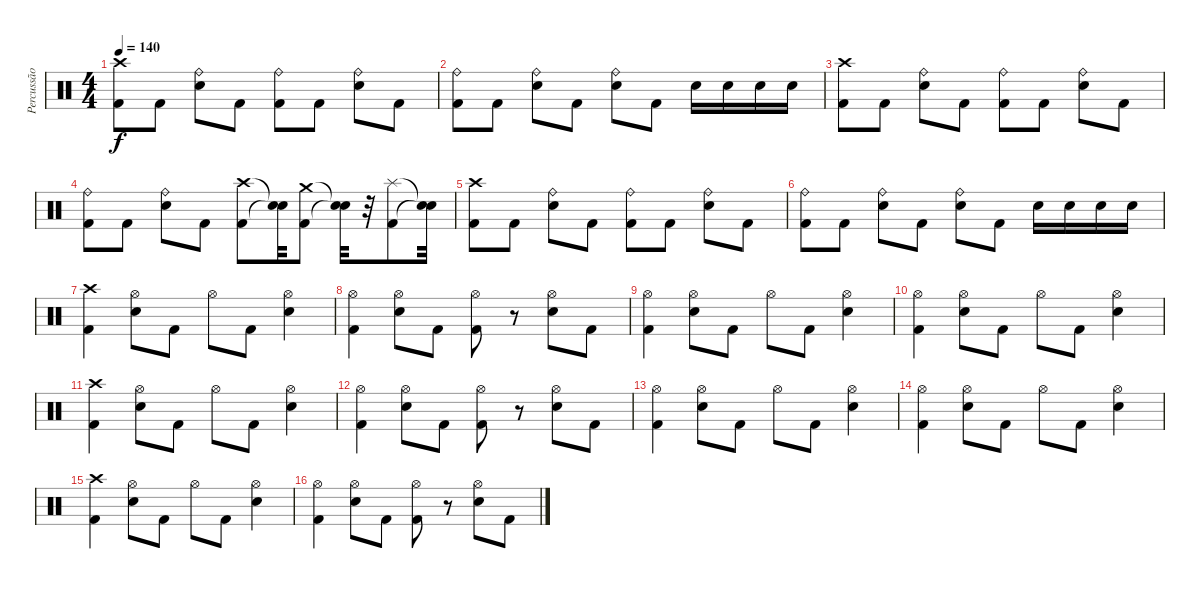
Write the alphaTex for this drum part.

\track ("Percussão" "Percussão") {instrument percussion}
\staff {score}
\articulation defaults
\ts (4 4)
\tempo 140
\clef neutral
\ks c
("Crash high (hit)" "Kick (hit) 2").8{dy f} "Kick (hit) 2".8 ("Ride (bell)" "Electric Snare (hit)").8 "Kick (hit) 2".8 ("Ride (bell)" "Kick (hit) 2").8 "Kick (hit) 2".8 ("Ride (bell)" "Electric Snare (hit)").8 "Kick (hit) 2".8 |
("Ride (bell)" "Kick (hit) 2").8 "Kick (hit) 2".8 ("Ride (bell)" "Electric Snare (hit)").8 "Kick (hit) 2".8 ("Ride (bell)" "Electric Snare (hit)").8 "Kick (hit) 2".8 "Electric Snare (hit)".16 "Electric Snare (hit)".16 "Electric Snare (hit)".16 "Electric Snare (hit)".16 |
("Crash high (hit)" "Kick (hit) 2").8 "Kick (hit) 2".8 ("Ride (bell)" "Electric Snare (hit)").8 "Kick (hit) 2".8 ("Ride (bell)" "Kick (hit) 2").8 "Kick (hit) 2".8 ("Ride (bell)" "Electric Snare (hit)").8 "Kick (hit) 2".8 |
("Ride (bell)" "Kick (hit) 2").8 "Kick (hit) 2".8 ("Ride (bell)" "Electric Snare (hit)").8 "Kick (hit) 2".8 ("Crash high (hit)" "Kick (hit) 2").8 ("Snare (hit)"{t} "Snare (hit)"{t}).32 ("Crash medium (hit)" "Kick (hit) 2").8 ("Snare (hit)"{t} "Snare (hit)"{t}).32 r.32 ("Splash (hit)" "Kick (hit) 2").8 ("Snare (hit)"{t} "Snare (hit)"{t}).32 |
("Crash high (hit)" "Kick (hit) 2").8 "Kick (hit) 2".8 ("Ride (bell)" "Electric Snare (hit)").8 "Kick (hit) 2".8 ("Ride (bell)" "Kick (hit) 2").8 "Kick (hit) 2".8 ("Ride (bell)" "Electric Snare (hit)").8 "Kick (hit) 2".8 |
("Ride (bell)" "Kick (hit) 2").8 "Kick (hit) 2".8 ("Ride (bell)" "Electric Snare (hit)").8 "Kick (hit) 2".8 ("Ride (bell)" "Electric Snare (hit)").8 "Kick (hit) 2".8 "Electric Snare (hit)".16 "Electric Snare (hit)".16 "Electric Snare (hit)".16 "Electric Snare (hit)".16 |
("Crash high (hit)" "Kick (hit) 2").4 ("Hi-Hat (open)" "Electric Snare (hit)").8 "Kick (hit) 2".8 "Hi-Hat (open)".8 "Kick (hit) 2".8 ("Hi-Hat (open)" "Electric Snare (hit)").4 |
("Hi-Hat (open)" "Kick (hit) 2").4 ("Hi-Hat (open)" "Electric Snare (hit)").8 "Kick (hit) 2".8 ("Hi-Hat (open)" "Kick (hit) 2").8 r.8 ("Hi-Hat (open)" "Electric Snare (hit)").8 "Kick (hit) 2".8 |
("Hi-Hat (open)" "Kick (hit) 2").4 ("Hi-Hat (open)" "Electric Snare (hit)").8 "Kick (hit) 2".8 "Hi-Hat (open)".8 "Kick (hit) 2".8 ("Hi-Hat (open)" "Electric Snare (hit)").4 |
("Hi-Hat (open)" "Kick (hit) 2").4 ("Hi-Hat (open)" "Electric Snare (hit)").8 "Kick (hit) 2".8 "Hi-Hat (open)".8 "Kick (hit) 2".8 ("Hi-Hat (open)" "Electric Snare (hit)").4 |
("Crash high (hit)" "Kick (hit) 2").4 ("Hi-Hat (open)" "Electric Snare (hit)").8 "Kick (hit) 2".8 "Hi-Hat (open)".8 "Kick (hit) 2".8 ("Hi-Hat (open)" "Electric Snare (hit)").4 |
("Hi-Hat (open)" "Kick (hit) 2").4 ("Hi-Hat (open)" "Electric Snare (hit)").8 "Kick (hit) 2".8 ("Hi-Hat (open)" "Kick (hit) 2").8 r.8 ("Hi-Hat (open)" "Electric Snare (hit)").8 "Kick (hit) 2".8 |
("Hi-Hat (open)" "Kick (hit) 2").4 ("Hi-Hat (open)" "Electric Snare (hit)").8 "Kick (hit) 2".8 "Hi-Hat (open)".8 "Kick (hit) 2".8 ("Hi-Hat (open)" "Electric Snare (hit)").4 |
("Hi-Hat (open)" "Kick (hit) 2").4 ("Hi-Hat (open)" "Electric Snare (hit)").8 "Kick (hit) 2".8 "Hi-Hat (open)".8 "Kick (hit) 2".8 ("Hi-Hat (open)" "Electric Snare (hit)").4 |
("Crash high (hit)" "Kick (hit) 2").4 ("Hi-Hat (open)" "Electric Snare (hit)").8 "Kick (hit) 2".8 "Hi-Hat (open)".8 "Kick (hit) 2".8 ("Hi-Hat (open)" "Electric Snare (hit)").4 |
("Hi-Hat (open)" "Kick (hit) 2").4 ("Hi-Hat (open)" "Electric Snare (hit)").8 "Kick (hit) 2".8 ("Hi-Hat (open)" "Kick (hit) 2").8 r.8 ("Hi-Hat (open)" "Electric Snare (hit)").8 "Kick (hit) 2".8
